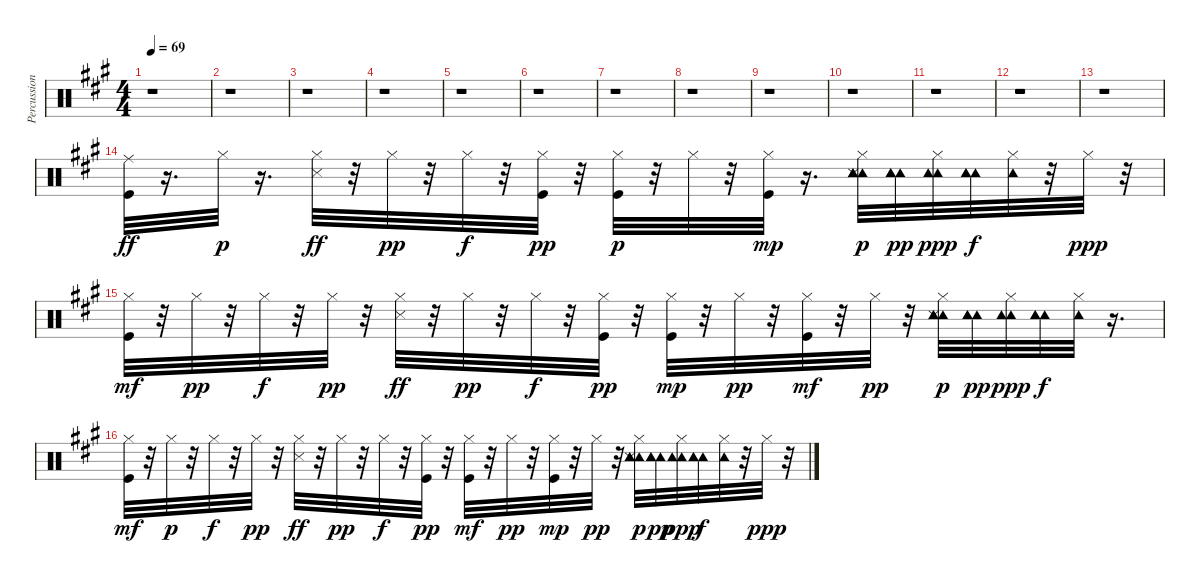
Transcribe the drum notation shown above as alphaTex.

\track ("Percussions" "Percussion") {instrument percussion}
\staff {score}
\articulation defaults
\ts (4 4)
\tempo 69
\clef neutral
\ks f#minor
r.1{dy ff} |
r.1 |
r.1 |
r.1 |
r.1 |
r.1 |
r.1 |
r.1 |
r.1 |
r.1 |
r.1 |
r.1 |
r.1 |
("Kick (hit)" "Ride (middle)").32 r.16{d} "Hi-Hat (closed)".32{dy p} r.16{d} ("Snare (side stick) 3" "Hi-Hat (closed)").32{dy ff} r.32 "Hi-Hat (closed)".32{dy pp} r.32 "Hi-Hat (closed)".32{dy f} r.32 ("Hi-Hat (closed)" "Kick (hit)").32{dy pp} r.32 ("Kick (hit)" "Hi-Hat (closed)").32{dy p} r.32 "Hi-Hat (closed)".32 r.32 ("Hi-Hat (closed)" "Kick (hit)").32{dy mp} r.16{d} ("Tambourine (hit)" "Tambourine (hit)" "Snare (side stick) 3" "Hi-Hat (closed)" "Tambourine (hit)").32{dy p} ("Tambourine (hit)" "Tambourine (hit)" "Tambourine (hit)").32{dy pp} ("Tambourine (hit)" "Hi-Hat (closed)" "Tambourine (hit)").32{dy ppp} ("Tambourine (hit)" "Tambourine (hit)" "Tambourine (hit)").32{dy f} ("Tambourine (hit)" "Hi-Hat (closed)").32 r.32 "Hi-Hat (closed)".32{dy ppp} r.32 |
("Kick (hit)" "Hi-Hat (closed)").32{dy mf} r.32 "Hi-Hat (closed)".32{dy pp} r.32 "Hi-Hat (closed)".32{dy f} r.32 "Hi-Hat (closed)".32{dy pp} r.32 ("Hi-Hat (closed)" "Snare (side stick) 3").32{dy ff} r.32 "Hi-Hat (closed)".32{dy pp} r.32 "Hi-Hat (closed)".32{dy f} r.32 ("Hi-Hat (closed)" "Kick (hit)").32{dy pp} r.32 ("Kick (hit)" "Hi-Hat (closed)").32{dy mp} r.32 "Hi-Hat (closed)".32{dy pp} r.32 ("Kick (hit)" "Hi-Hat (closed)").32{dy mf} r.32 "Hi-Hat (closed)".32{dy pp} r.32 ("Tambourine (hit)" "Hi-Hat (closed)" "Tambourine (hit)" "Snare (side stick) 3" "Tambourine (hit)").32{dy p} ("Tambourine (hit)" "Tambourine (hit)" "Tambourine (hit)").32{dy pp} ("Tambourine (hit)" "Hi-Hat (closed)" "Tambourine (hit)").32{dy ppp} ("Tambourine (hit)" "Tambourine (hit)" "Tambourine (hit)").32{dy f} ("Tambourine (hit)" "Hi-Hat (closed)").32 r.16{d} |
("Kick (hit)" "Hi-Hat (closed)").32{dy mf} r.32 "Hi-Hat (closed)".32{dy p} r.32 "Hi-Hat (closed)".32{dy f} r.32 "Hi-Hat (closed)".32{dy pp} r.32 ("Hi-Hat (closed)" "Snare (side stick) 3").32{dy ff} r.32 "Hi-Hat (closed)".32{dy pp} r.32 "Hi-Hat (closed)".32{dy f} r.32 ("Kick (hit)" "Hi-Hat (closed)").32{dy pp} r.32 ("Kick (hit)" "Hi-Hat (closed)").32{dy mf} r.32 "Hi-Hat (closed)".32{dy pp} r.32 ("Kick (hit)" "Hi-Hat (closed)").32{dy mp} r.32 "Hi-Hat (closed)".32{dy pp} r.32 ("Tambourine (hit)" "Tambourine (hit)" "Snare (side stick) 3" "Hi-Hat (closed)" "Tambourine (hit)").32{dy p} ("Tambourine (hit)" "Tambourine (hit)" "Tambourine (hit)").32{dy pp} ("Tambourine (hit)" "Hi-Hat (closed)" "Tambourine (hit)").32{dy ppp} ("Tambourine (hit)" "Tambourine (hit)" "Tambourine (hit)").32{dy f} ("Tambourine (hit)" "Hi-Hat (closed)").32 r.32 "Hi-Hat (closed)".32{dy ppp} r.32
